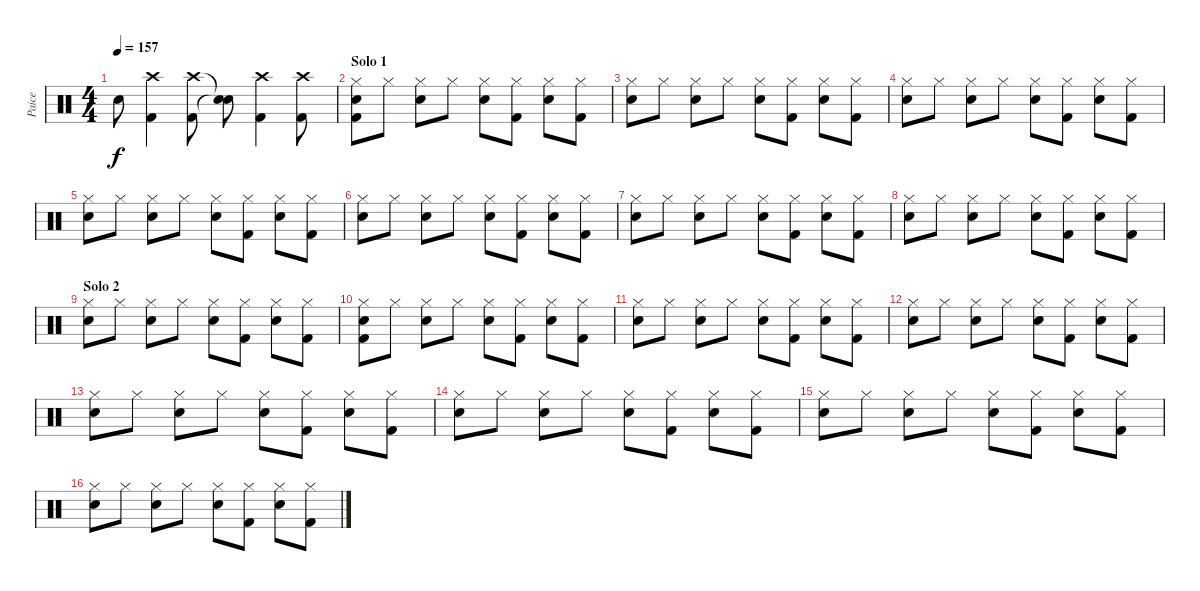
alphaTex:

\track ("Paice" "Paice") {instrument percussion}
\staff {score}
\articulation defaults
\ts (4 4)
\tempo 157
\clef neutral
\ks c "Snare (hit) 2".8{dy f}
("Crash high (hit)" "Kick (hit) 2").4 ("Crash high (hit)" "Kick (hit) 2").8 ("Snare (hit)"{t} "Snare (hit)"{t}).8 ("Crash high (hit)" "Kick (hit) 2").4 ("Crash high (hit)" "Kick (hit) 2").8 |
\section ("" "Solo 1")
("Hi-Hat (closed)" "Snare (hit) 2" "Kick (hit) 2").8 "Hi-Hat (closed)".8 ("Hi-Hat (closed)" "Snare (hit) 2").8 "Hi-Hat (closed)".8 ("Hi-Hat (closed)" "Snare (hit) 2").8 ("Hi-Hat (closed)" "Kick (hit) 2").8 ("Hi-Hat (closed)" "Snare (hit) 2").8 ("Hi-Hat (closed)" "Kick (hit) 2").8 |
("Hi-Hat (closed)" "Snare (hit) 2").8 "Hi-Hat (closed)".8 ("Hi-Hat (closed)" "Snare (hit) 2").8 "Hi-Hat (closed)".8 ("Hi-Hat (closed)" "Snare (hit) 2").8 ("Hi-Hat (closed)" "Kick (hit) 2").8 ("Hi-Hat (closed)" "Snare (hit) 2").8 ("Hi-Hat (closed)" "Kick (hit) 2").8 |
("Hi-Hat (closed)" "Snare (hit) 2").8 "Hi-Hat (closed)".8 ("Hi-Hat (closed)" "Snare (hit) 2").8 "Hi-Hat (closed)".8 ("Hi-Hat (closed)" "Snare (hit) 2").8 ("Hi-Hat (closed)" "Kick (hit) 2").8 ("Hi-Hat (closed)" "Snare (hit) 2").8 ("Hi-Hat (closed)" "Kick (hit) 2").8 |
("Hi-Hat (closed)" "Snare (hit) 2").8 "Hi-Hat (closed)".8 ("Hi-Hat (closed)" "Snare (hit) 2").8 "Hi-Hat (closed)".8 ("Hi-Hat (closed)" "Snare (hit) 2").8 ("Hi-Hat (closed)" "Kick (hit) 2").8 ("Hi-Hat (closed)" "Snare (hit) 2").8 ("Hi-Hat (closed)" "Kick (hit) 2").8 |
("Hi-Hat (closed)" "Snare (hit) 2").8 "Hi-Hat (closed)".8 ("Hi-Hat (closed)" "Snare (hit) 2").8 "Hi-Hat (closed)".8 ("Hi-Hat (closed)" "Snare (hit) 2").8 ("Hi-Hat (closed)" "Kick (hit) 2").8 ("Hi-Hat (closed)" "Snare (hit) 2").8 ("Hi-Hat (closed)" "Kick (hit) 2").8 |
("Hi-Hat (closed)" "Snare (hit) 2").8 "Hi-Hat (closed)".8 ("Hi-Hat (closed)" "Snare (hit) 2").8 "Hi-Hat (closed)".8 ("Hi-Hat (closed)" "Snare (hit) 2").8 ("Hi-Hat (closed)" "Kick (hit) 2").8 ("Hi-Hat (closed)" "Snare (hit) 2").8 ("Hi-Hat (closed)" "Kick (hit) 2").8 |
("Hi-Hat (closed)" "Snare (hit) 2").8 "Hi-Hat (closed)".8 ("Hi-Hat (closed)" "Snare (hit) 2").8 "Hi-Hat (closed)".8 ("Hi-Hat (closed)" "Snare (hit) 2").8 ("Hi-Hat (closed)" "Kick (hit) 2").8 ("Hi-Hat (closed)" "Snare (hit) 2").8 ("Hi-Hat (closed)" "Kick (hit) 2").8 |
\section ("" "Solo 2")
("Hi-Hat (closed)" "Snare (hit) 2").8 "Hi-Hat (closed)".8 ("Hi-Hat (closed)" "Snare (hit) 2").8 "Hi-Hat (closed)".8 ("Hi-Hat (closed)" "Snare (hit) 2").8 ("Hi-Hat (closed)" "Kick (hit) 2").8 ("Hi-Hat (closed)" "Snare (hit) 2").8 ("Hi-Hat (closed)" "Kick (hit) 2").8 |
("Hi-Hat (closed)" "Snare (hit) 2" "Kick (hit) 2").8 "Hi-Hat (closed)".8 ("Hi-Hat (closed)" "Snare (hit) 2").8 "Hi-Hat (closed)".8 ("Hi-Hat (closed)" "Snare (hit) 2").8 ("Hi-Hat (closed)" "Kick (hit) 2").8 ("Hi-Hat (closed)" "Snare (hit) 2").8 ("Hi-Hat (closed)" "Kick (hit) 2").8 |
("Hi-Hat (closed)" "Snare (hit) 2").8 "Hi-Hat (closed)".8 ("Hi-Hat (closed)" "Snare (hit) 2").8 "Hi-Hat (closed)".8 ("Hi-Hat (closed)" "Snare (hit) 2").8 ("Hi-Hat (closed)" "Kick (hit) 2").8 ("Hi-Hat (closed)" "Snare (hit) 2").8 ("Hi-Hat (closed)" "Kick (hit) 2").8 |
("Hi-Hat (closed)" "Snare (hit) 2").8 "Hi-Hat (closed)".8 ("Hi-Hat (closed)" "Snare (hit) 2").8 "Hi-Hat (closed)".8 ("Hi-Hat (closed)" "Snare (hit) 2").8 ("Hi-Hat (closed)" "Kick (hit) 2").8 ("Hi-Hat (closed)" "Snare (hit) 2").8 ("Hi-Hat (closed)" "Kick (hit) 2").8 |
("Hi-Hat (closed)" "Snare (hit) 2").8 "Hi-Hat (closed)".8 ("Hi-Hat (closed)" "Snare (hit) 2").8 "Hi-Hat (closed)".8 ("Hi-Hat (closed)" "Snare (hit) 2").8 ("Hi-Hat (closed)" "Kick (hit) 2").8 ("Hi-Hat (closed)" "Snare (hit) 2").8 ("Hi-Hat (closed)" "Kick (hit) 2").8 |
("Hi-Hat (closed)" "Snare (hit) 2").8 "Hi-Hat (closed)".8 ("Hi-Hat (closed)" "Snare (hit) 2").8 "Hi-Hat (closed)".8 ("Hi-Hat (closed)" "Snare (hit) 2").8 ("Hi-Hat (closed)" "Kick (hit) 2").8 ("Hi-Hat (closed)" "Snare (hit) 2").8 ("Hi-Hat (closed)" "Kick (hit) 2").8 |
("Hi-Hat (closed)" "Snare (hit) 2").8 "Hi-Hat (closed)".8 ("Hi-Hat (closed)" "Snare (hit) 2").8 "Hi-Hat (closed)".8 ("Hi-Hat (closed)" "Snare (hit) 2").8 ("Hi-Hat (closed)" "Kick (hit) 2").8 ("Hi-Hat (closed)" "Snare (hit) 2").8 ("Hi-Hat (closed)" "Kick (hit) 2").8 |
("Hi-Hat (closed)" "Snare (hit) 2").8 "Hi-Hat (closed)".8 ("Hi-Hat (closed)" "Snare (hit) 2").8 "Hi-Hat (closed)".8 ("Hi-Hat (closed)" "Snare (hit) 2").8 ("Hi-Hat (closed)" "Kick (hit) 2").8 ("Hi-Hat (closed)" "Snare (hit) 2").8 ("Hi-Hat (closed)" "Kick (hit) 2").8
